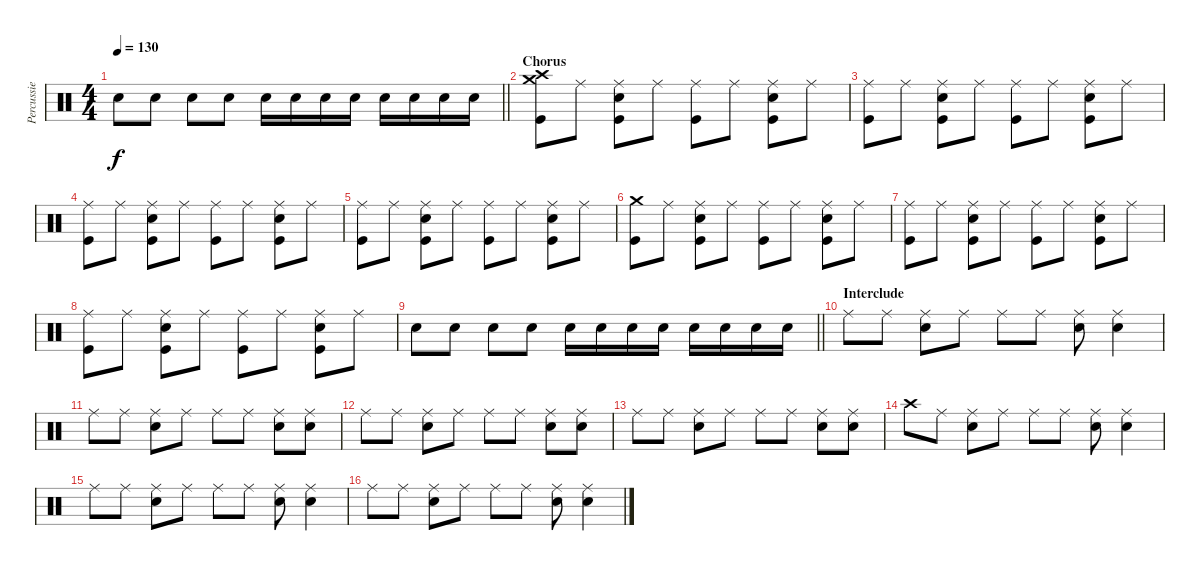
\track ("Percussie" "Percussie") {instrument percussion}
\staff {score}
\articulation defaults
\ts (4 4)
\tempo 130
\clef neutral
\barLineRight lightlight
\ks c "Snare (hit) 2".8{dy f} "Snare (hit) 2".8 "Snare (hit) 2".8 "Snare (hit) 2".8 "Snare (hit) 2".16 "Snare (hit) 2".16 "Snare (hit) 2".16 "Snare (hit) 2".16 "Snare (hit) 2".16 "Snare (hit) 2".16 "Snare (hit) 2".16 "Snare (hit) 2".16
|
\section ("" "Chorus")
("Crash high (hit)" "Crash medium (hit)" "Kick (hit)").8 "Ride (middle)".8 ("Ride (middle)" "Snare (hit) 2" "Kick (hit)").8 "Ride (middle)".8 ("Ride (middle)" "Kick (hit)").8 "Ride (middle)".8 ("Ride (middle)" "Snare (hit) 2" "Kick (hit)").8 "Ride (middle)".8 |
("Ride (middle)" "Kick (hit)").8 "Ride (middle)".8 ("Ride (middle)" "Snare (hit) 2" "Kick (hit)").8 "Ride (middle)".8 ("Ride (middle)" "Kick (hit)").8 "Ride (middle)".8 ("Ride (middle)" "Snare (hit) 2" "Kick (hit)").8 "Ride (middle)".8 |
("Ride (middle)" "Kick (hit)").8 "Ride (middle)".8 ("Ride (middle)" "Snare (hit) 2" "Kick (hit)").8 "Ride (middle)".8 ("Ride (middle)" "Kick (hit)").8 "Ride (middle)".8 ("Ride (middle)" "Snare (hit) 2" "Kick (hit)").8 "Ride (middle)".8 |
("Ride (middle)" "Kick (hit)").8 "Ride (middle)".8 ("Ride (middle)" "Snare (hit) 2" "Kick (hit)").8 "Ride (middle)".8 ("Ride (middle)" "Kick (hit)").8 "Ride (middle)".8 ("Ride (middle)" "Snare (hit) 2" "Kick (hit)").8 "Ride (middle)".8 |
("Crash medium (hit)" "Kick (hit)").8 "Ride (middle)".8 ("Ride (middle)" "Snare (hit) 2" "Kick (hit)").8 "Ride (middle)".8 ("Ride (middle)" "Kick (hit)").8 "Ride (middle)".8 ("Ride (middle)" "Snare (hit) 2" "Kick (hit)").8 "Ride (middle)".8 |
("Ride (middle)" "Kick (hit)").8 "Ride (middle)".8 ("Ride (middle)" "Snare (hit) 2" "Kick (hit)").8 "Ride (middle)".8 ("Ride (middle)" "Kick (hit)").8 "Ride (middle)".8 ("Ride (middle)" "Snare (hit) 2" "Kick (hit)").8 "Ride (middle)".8 |
("Ride (middle)" "Kick (hit)").8 "Ride (middle)".8 ("Ride (middle)" "Snare (hit) 2" "Kick (hit)").8 "Ride (middle)".8 ("Ride (middle)" "Kick (hit)").8 "Ride (middle)".8 ("Ride (middle)" "Snare (hit) 2" "Kick (hit)").8 "Ride (middle)".8 |
\barLineRight lightlight "Snare (hit) 2".8 "Snare (hit) 2".8 "Snare (hit) 2".8 "Snare (hit) 2".8 "Snare (hit) 2".16 "Snare (hit) 2".16 "Snare (hit) 2".16 "Snare (hit) 2".16 "Snare (hit) 2".16 "Snare (hit) 2".16 "Snare (hit) 2".16 "Snare (hit) 2".16
|
\section ("" "Interclude")
"Ride (middle)".8 "Ride (middle)".8 ("Snare (hit) 2" "Ride (middle)").8 "Ride (middle)".8 "Ride (middle)".8 "Ride (middle)".8 ("Snare (hit) 2" "Ride (middle)").8 ("Snare (hit) 2" "Ride (middle)").4 |
"Ride (middle)".8 "Ride (middle)".8 ("Snare (hit) 2" "Ride (middle)").8 "Ride (middle)".8 "Ride (middle)".8 "Ride (middle)".8 ("Snare (hit) 2" "Ride (middle)").8 ("Snare (hit) 2" "Ride (middle)").8 |
"Ride (middle)".8 "Ride (middle)".8 ("Snare (hit) 2" "Ride (middle)").8 "Ride (middle)".8 "Ride (middle)".8 "Ride (middle)".8 ("Snare (hit) 2" "Ride (middle)").8 ("Snare (hit) 2" "Ride (middle)").8 |
"Ride (middle)".8 "Ride (middle)".8 ("Snare (hit) 2" "Ride (middle)").8 "Ride (middle)".8 "Ride (middle)".8 "Ride (middle)".8 ("Snare (hit) 2" "Ride (middle)").8 ("Snare (hit) 2" "Ride (middle)").8 |
"Crash high (hit)".8 "Ride (middle)".8 ("Snare (hit) 2" "Ride (middle)").8 "Ride (middle)".8 "Ride (middle)".8 "Ride (middle)".8 ("Snare (hit) 2" "Ride (middle)").8 ("Snare (hit) 2" "Ride (middle)").4 |
"Ride (middle)".8 "Ride (middle)".8 ("Snare (hit) 2" "Ride (middle)").8 "Ride (middle)".8 "Ride (middle)".8 "Ride (middle)".8 ("Snare (hit) 2" "Ride (middle)").8 ("Snare (hit) 2" "Ride (middle)").4 |
"Ride (middle)".8 "Ride (middle)".8 ("Snare (hit) 2" "Ride (middle)").8 "Ride (middle)".8 "Ride (middle)".8 "Ride (middle)".8 ("Snare (hit) 2" "Ride (middle)").8 ("Snare (hit) 2" "Ride (middle)").4
